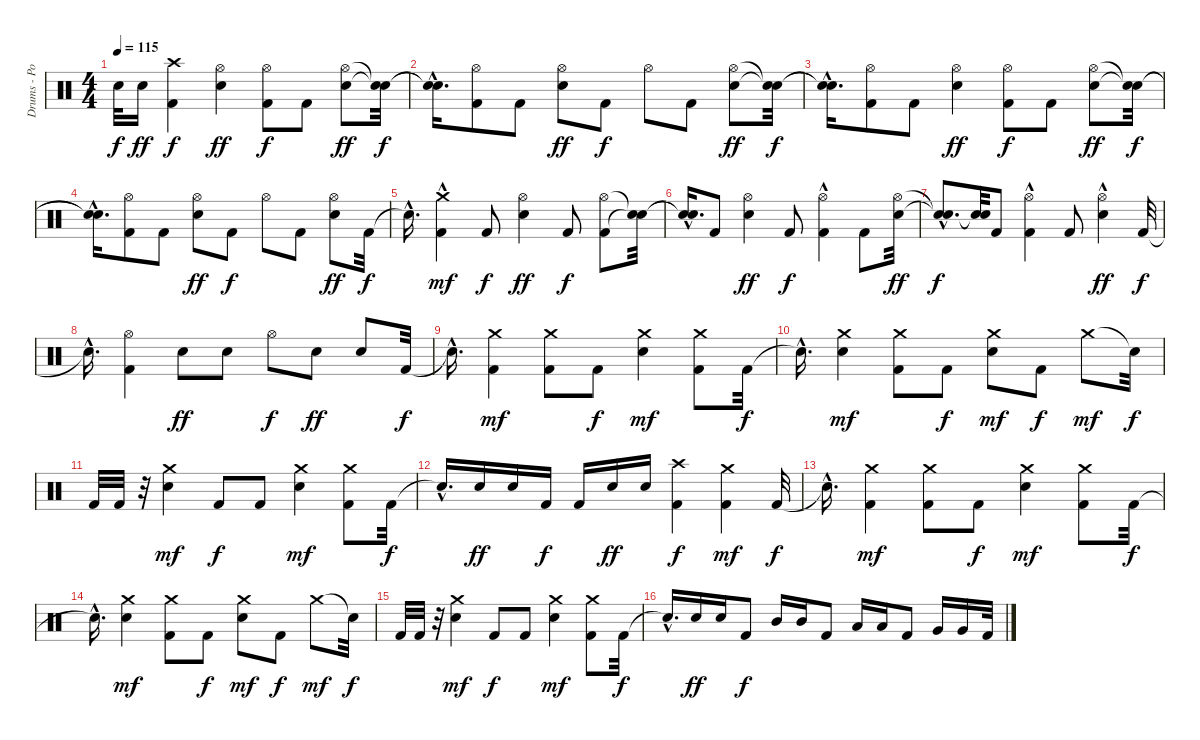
\track ("Drums - Portnoy" "Drums - Po") {instrument percussion}
\staff {score}
\articulation defaults
\ts (4 4)
\tempo 115
\clef neutral
\ks c "Snare (hit)"{t}.32{dy f} "Electric Snare (hit)".16{dy ff}
("Crash high (hit)" "Kick (hit) 2").4{dy f} ("Hi-Hat (open)" "Electric Snare (hit)").4{dy ff} ("Kick (hit) 2" "Hi-Hat (open)").8{dy f} "Kick (hit) 2".8 ("Hi-Hat (open)" "Electric Snare (hit)").8{dy ff} ("Snare (hit)"{t} "Snare (hit)"{t}).32{dy f} |
("Snare (hit)"{hac t} "Snare (hit)"{hac t}).16{d} ("Kick (hit) 2" "Hi-Hat (open)").8 "Kick (hit) 2".8 ("Hi-Hat (open)" "Electric Snare (hit)").8{dy ff} "Kick (hit) 2".8{dy f} "Hi-Hat (open)".8 "Kick (hit) 2".8 ("Hi-Hat (open)" "Electric Snare (hit)").8{dy ff} ("Snare (hit)"{t} "Snare (hit)"{t}).32{dy f} |
("Snare (hit)"{hac t} "Snare (hit)"{hac t}).16{d} ("Hi-Hat (open)" "Kick (hit) 2").8 "Kick (hit) 2".8 ("Hi-Hat (open)" "Electric Snare (hit)").4{dy ff} ("Kick (hit) 2" "Hi-Hat (open)").8{dy f} "Kick (hit) 2".8 ("Hi-Hat (open)" "Electric Snare (hit)").8{dy ff} ("Snare (hit)"{t} "Snare (hit)"{t}).32{dy f} |
("Snare (hit)"{hac t} "Snare (hit)"{hac t}).16{d} ("Kick (hit) 2" "Hi-Hat (open)").8 "Kick (hit) 2".8 ("Hi-Hat (open)" "Electric Snare (hit)").8{dy ff} "Kick (hit) 2".8{dy f} "Hi-Hat (open)".8 "Kick (hit) 2".8 ("Hi-Hat (open)" "Electric Snare (hit)").8{dy ff} "Kick (hit) 2".32{dy f} |
"Snare (hit)"{hac t}.16{d} ("Kick (hit) 2" "Crash medium (hit)"{hac}).4{dy mf} "Kick (hit) 2".8{dy f} ("Hi-Hat (open)" "Electric Snare (hit)").4{dy ff} "Kick (hit) 2".8{dy f} ("Kick (hit) 2" "Hi-Hat (open)").8 ("Snare (hit)"{t} "Snare (hit)"{t}).32 |
("Snare (hit)"{hac t} "Snare (hit)"{hac t}).16{d} "Kick (hit) 2".8 ("Hi-Hat (open)" "Electric Snare (hit)").4{dy ff} "Kick (hit) 2".8{dy f} ("Kick (hit) 2" "Hi-Hat (open)"{hac}).4 "Kick (hit) 2".8 ("Hi-Hat (open)" "Electric Snare (hit)").32{dy ff} |
("Snare (hit)"{hac t} "Snare (hit)"{hac t}).8{d dy f} ("Snare (hit)"{t} "Snare (hit)"{t}).32 "Kick (hit) 2".8 ("Kick (hit) 2" "Hi-Hat (open)"{hac}).4 "Kick (hit) 2".8 ("Hi-Hat (open)"{hac} "Electric Snare (hit)").4{dy ff} "Kick (hit) 2".32{dy f} |
"Snare (hit)"{hac t}.16{d} ("Kick (hit) 2" "Hi-Hat (open)").4 "Electric Snare (hit)".8{dy ff} "Electric Snare (hit)".8 "Hi-Hat (open)".8{dy f} "Electric Snare (hit)".8{dy ff} "Electric Snare (hit)".8 "Kick (hit) 2".32{dy f} |
"Snare (hit)"{hac t}.16{d} ("Kick (hit) 2" "Crash medium (hit)").4{dy mf} ("Kick (hit) 2" "Crash medium (hit)").8 "Kick (hit) 2".8{dy f} ("Electric Snare (hit)" "Crash medium (hit)").4{dy mf} ("Kick (hit) 2" "Crash medium (hit)").8 "Kick (hit) 2".32{dy f} |
"Snare (hit)"{hac t}.16{d} ("Electric Snare (hit)" "Crash medium (hit)").4{dy mf} ("Kick (hit) 2" "Crash medium (hit)").8 "Kick (hit) 2".8{dy f} ("Electric Snare (hit)" "Crash medium (hit)").8{dy mf} "Kick (hit) 2".8{dy f} "Crash medium (hit)".8{dy mf} "Snare (hit)"{t}.32{dy f} |
"Kick (hit) 2".32 "Kick (hit) 2".32 r.32 ("Electric Snare (hit)" "Crash medium (hit)").4{dy mf} "Kick (hit) 2".8{dy f} "Kick (hit) 2".8 ("Electric Snare (hit)" "Crash medium (hit)").4{dy mf} ("Kick (hit) 2" "Crash medium (hit)").8 "Kick (hit) 2".32{dy f} |
"Snare (hit)"{hac t}.16{d} "Electric Snare (hit)".16{dy ff} "Electric Snare (hit)".16 "Kick (hit) 2".16{dy f} "Kick (hit) 2".16 "Electric Snare (hit)".16{dy ff} "Electric Snare (hit)".16 ("Crash high (hit)" "Kick (hit) 2").4{dy f} ("Kick (hit) 2" "Crash medium (hit)").4{dy mf} "Kick (hit) 2".32{dy f} |
"Snare (hit)"{hac t}.16{d} ("Kick (hit) 2" "Crash medium (hit)").4{dy mf} ("Kick (hit) 2" "Crash medium (hit)").8 "Kick (hit) 2".8{dy f} ("Electric Snare (hit)" "Crash medium (hit)").4{dy mf} ("Kick (hit) 2" "Crash medium (hit)").8 "Kick (hit) 2".32{dy f} |
"Snare (hit)"{hac t}.16{d} ("Electric Snare (hit)" "Crash medium (hit)").4{dy mf} ("Kick (hit) 2" "Crash medium (hit)").8 "Kick (hit) 2".8{dy f} ("Electric Snare (hit)" "Crash medium (hit)").8{dy mf} "Kick (hit) 2".8{dy f} "Crash medium (hit)".8{dy mf} "Snare (hit)"{t}.32{dy f} |
"Kick (hit) 2".32 "Kick (hit) 2".32 r.32 ("Electric Snare (hit)" "Crash medium (hit)").4{dy mf} "Kick (hit) 2".8{dy f} "Kick (hit) 2".8 ("Electric Snare (hit)" "Crash medium (hit)").4{dy mf} ("Kick (hit) 2" "Crash medium (hit)").8 "Kick (hit) 2".32{dy f} |
"Snare (hit)"{hac t}.16{d} "Electric Snare (hit)".16{dy ff} "Electric Snare (hit)".16 "Kick (hit) 2".8{dy f} "Mid Tom (hit)".16 "Mid Tom (hit)".16 "Kick (hit) 2".8 "Low Tom (hit)".16 "Low Tom (hit)".16 "Kick (hit) 2".8 "Very Low Tom (hit)".16 "Very Low Tom (hit)".16 "Kick (hit) 2".32
